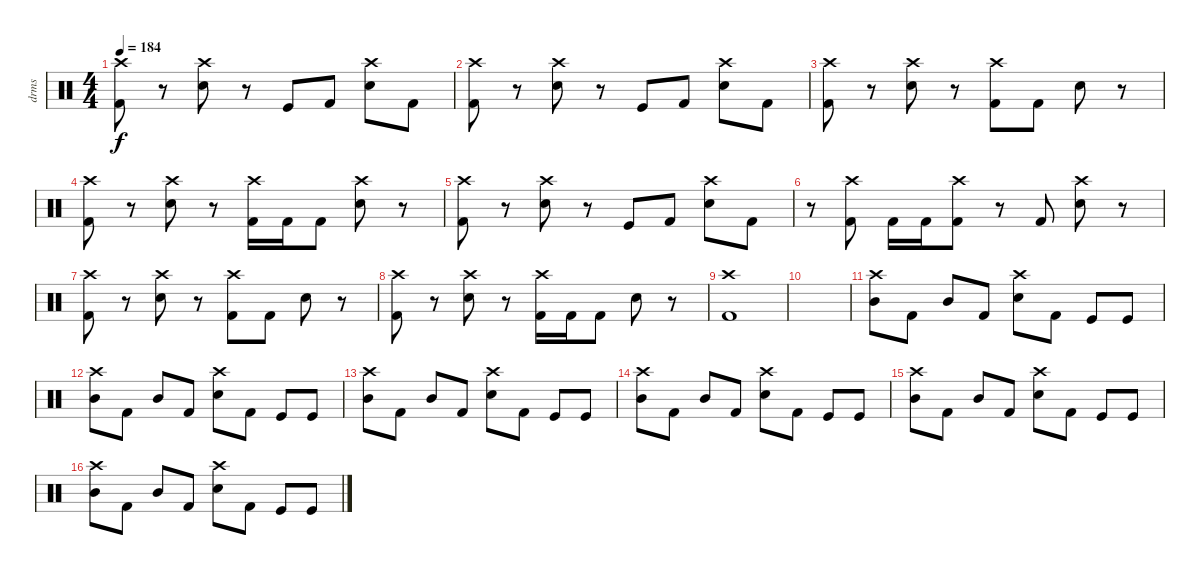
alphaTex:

\track ("drms" "drms") {instrument percussion}
\staff {score}
\articulation defaults
\ts (4 4)
\tempo 184
\clef neutral
\ks c
("Crash high (hit)" "Kick (hit) 2").8{dy f} r.8 ("Crash high (hit)" "Snare (hit) 2").8 r.8 "Kick (hit)".8 "Kick (hit) 2".8 ("Crash high (hit)" "Snare (hit) 2").8 "Kick (hit) 2".8 |
("Crash high (hit)" "Kick (hit) 2").8 r.8 ("Crash high (hit)" "Snare (hit) 2").8 r.8 "Kick (hit)".8 "Kick (hit) 2".8 ("Crash high (hit)" "Snare (hit) 2").8 "Kick (hit) 2".8 |
("Crash high (hit)" "Kick (hit) 2").8 r.8 ("Crash high (hit)" "Snare (hit) 2").8 r.8 ("Crash high (hit)" "Kick (hit) 2").8 "Kick (hit) 2".8 "Snare (hit) 2".8 r.8 |
("Crash high (hit)" "Kick (hit) 2").8 r.8 ("Crash high (hit)" "Snare (hit) 2").8 r.8 ("Crash high (hit)" "Kick (hit) 2").16 "Kick (hit) 2".16 "Kick (hit) 2".8 ("Crash high (hit)" "Snare (hit) 2").8 r.8 |
("Crash high (hit)" "Kick (hit) 2").8 r.8 ("Crash high (hit)" "Snare (hit) 2").8 r.8 "Kick (hit)".8 "Kick (hit) 2".8 ("Crash high (hit)" "Snare (hit) 2").8 "Kick (hit) 2".8 |
r.8 ("Crash high (hit)" "Kick (hit) 2").8 "Kick (hit) 2".16 "Kick (hit) 2".16 ("Crash high (hit)" "Kick (hit) 2").8 r.8 "Kick (hit) 2".8 ("Crash high (hit)" "Snare (hit) 2").8 r.8 |
("Crash high (hit)" "Kick (hit) 2").8 r.8 ("Crash high (hit)" "Snare (hit) 2").8 r.8 ("Crash high (hit)" "Kick (hit) 2").8 "Kick (hit) 2".8 "Snare (hit) 2".8 r.8 |
("Crash high (hit)" "Kick (hit) 2").8 r.8 ("Crash high (hit)" "Snare (hit) 2").8 r.8 ("Crash high (hit)" "Kick (hit) 2").16 "Kick (hit) 2".16 "Kick (hit) 2".8 "Snare (hit) 2".8 r.8 |
("Crash high (hit)" "Kick (hit) 2").1 |
|
("Mid Tom (hit)" "Crash high (hit)").8 "Kick (hit) 2".8 "Mid Tom (hit)".8 "Kick (hit) 2".8 ("Snare (hit) 2" "Crash high (hit)").8 "Kick (hit) 2".8 "Kick (hit)".8 "Kick (hit)".8 |
("Mid Tom (hit)" "Crash high (hit)").8 "Kick (hit) 2".8 "Mid Tom (hit)".8 "Kick (hit) 2".8 ("Snare (hit) 2" "Crash high (hit)").8 "Kick (hit) 2".8 "Kick (hit)".8 "Kick (hit)".8 |
("Mid Tom (hit)" "Crash high (hit)").8 "Kick (hit) 2".8 "Mid Tom (hit)".8 "Kick (hit) 2".8 ("Snare (hit) 2" "Crash high (hit)").8 "Kick (hit) 2".8 "Kick (hit)".8 "Kick (hit)".8 |
("Mid Tom (hit)" "Crash high (hit)").8 "Kick (hit) 2".8 "Mid Tom (hit)".8 "Kick (hit) 2".8 ("Snare (hit) 2" "Crash high (hit)").8 "Kick (hit) 2".8 "Kick (hit)".8 "Kick (hit)".8 |
("Mid Tom (hit)" "Crash high (hit)").8 "Kick (hit) 2".8 "Mid Tom (hit)".8 "Kick (hit) 2".8 ("Snare (hit) 2" "Crash high (hit)").8 "Kick (hit) 2".8 "Kick (hit)".8 "Kick (hit)".8 |
("Mid Tom (hit)" "Crash high (hit)").8 "Kick (hit) 2".8 "Mid Tom (hit)".8 "Kick (hit) 2".8 ("Snare (hit) 2" "Crash high (hit)").8 "Kick (hit) 2".8 "Kick (hit)".8 "Kick (hit)".8
